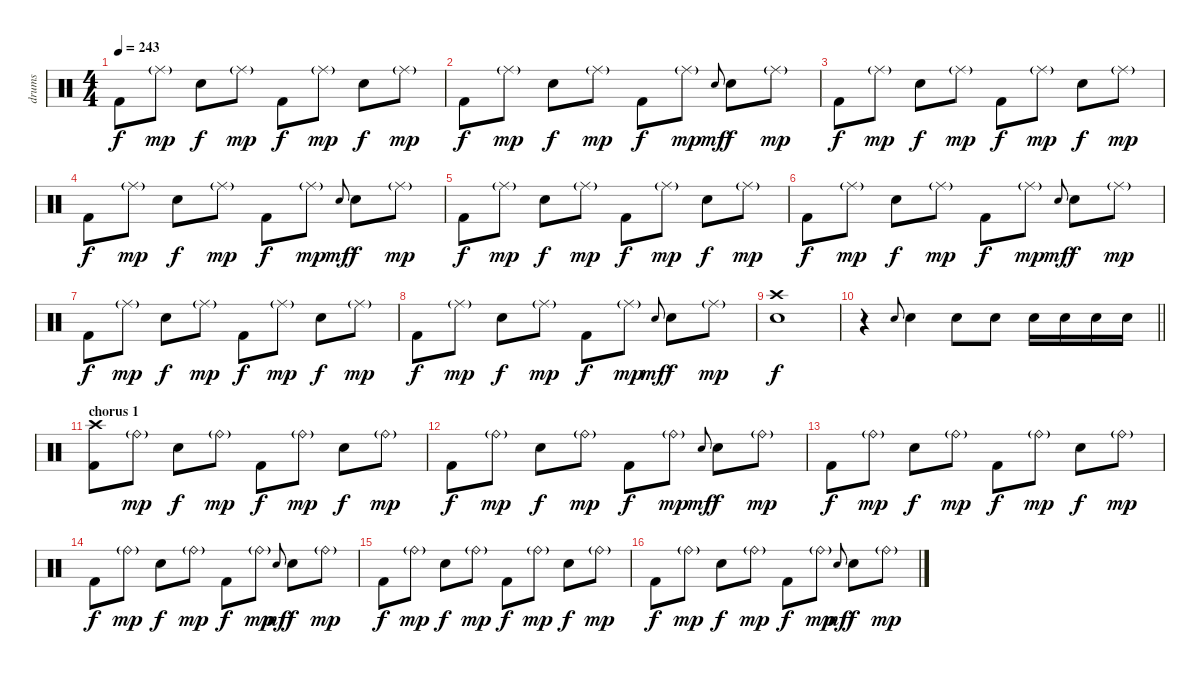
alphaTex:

\track ("drums" "drums") {instrument percussion}
\staff {score}
\articulation defaults
\ts (4 4)
\tempo 243
\clef neutral
\ks c "Kick (hit) 2".8{dy f} "Ride (middle)"{g}.8{dy mp} "Electric Snare (hit)".8{dy f} "Ride (middle)"{g}.8{dy mp} "Kick (hit) 2".8{dy f} "Ride (middle)"{g}.8{dy mp} "Electric Snare (hit)".8{dy f} "Ride (middle)"{g}.8{dy mp}
|
"Kick (hit) 2".8{dy f} "Ride (middle)"{g}.8{dy mp} "Electric Snare (hit)".8{dy f} "Ride (middle)"{g}.8{dy mp} "Kick (hit) 2".8{dy f} "Ride (middle)"{g}.8{dy mp} "Electric Snare (hit)"{x}.8{gr onbeat dy mf} "Electric Snare (hit)".8{dy f} "Ride (middle)"{g}.8{dy mp} |
"Kick (hit) 2".8{dy f} "Ride (middle)"{g}.8{dy mp} "Electric Snare (hit)".8{dy f} "Ride (middle)"{g}.8{dy mp} "Kick (hit) 2".8{dy f} "Ride (middle)"{g}.8{dy mp} "Electric Snare (hit)".8{dy f} "Ride (middle)"{g}.8{dy mp} |
"Kick (hit) 2".8{dy f} "Ride (middle)"{g}.8{dy mp} "Electric Snare (hit)".8{dy f} "Ride (middle)"{g}.8{dy mp} "Kick (hit) 2".8{dy f} "Ride (middle)"{g}.8{dy mp} "Electric Snare (hit)"{x}.8{gr onbeat dy mf} "Electric Snare (hit)".8{dy f} "Ride (middle)"{g}.8{dy mp} |
"Kick (hit) 2".8{dy f} "Ride (middle)"{g}.8{dy mp} "Electric Snare (hit)".8{dy f} "Ride (middle)"{g}.8{dy mp} "Kick (hit) 2".8{dy f} "Ride (middle)"{g}.8{dy mp} "Electric Snare (hit)".8{dy f} "Ride (middle)"{g}.8{dy mp} |
"Kick (hit) 2".8{dy f} "Ride (middle)"{g}.8{dy mp} "Electric Snare (hit)".8{dy f} "Ride (middle)"{g}.8{dy mp} "Kick (hit) 2".8{dy f} "Ride (middle)"{g}.8{dy mp} "Electric Snare (hit)"{x}.8{gr onbeat dy mf} "Electric Snare (hit)".8{dy f} "Ride (middle)"{g}.8{dy mp} |
"Kick (hit) 2".8{dy f} "Ride (middle)"{g}.8{dy mp} "Electric Snare (hit)".8{dy f} "Ride (middle)"{g}.8{dy mp} "Kick (hit) 2".8{dy f} "Ride (middle)"{g}.8{dy mp} "Electric Snare (hit)".8{dy f} "Ride (middle)"{g}.8{dy mp} |
"Kick (hit) 2".8{dy f} "Ride (middle)"{g}.8{dy mp} "Electric Snare (hit)".8{dy f} "Ride (middle)"{g}.8{dy mp} "Kick (hit) 2".8{dy f} "Ride (middle)"{g}.8{dy mp} "Electric Snare (hit)"{x}.8{gr onbeat dy mf} "Electric Snare (hit)".8{dy f} "Ride (middle)"{g}.8{dy mp} |
("Electric Snare (hit)" "Crash high (hit)").1{dy f} |
\barLineRight lightlight
r.4 "Electric Snare (hit)"{x}.8{gr onbeat} "Electric Snare (hit)".4 "Electric Snare (hit)".8 "Electric Snare (hit)".8 "Electric Snare (hit)".16 "Electric Snare (hit)".16 "Electric Snare (hit)".16 "Electric Snare (hit)".16 |
\section ("" "chorus 1")
("Kick (hit) 2" "Crash high (hit)").8 "Ride (bell)"{g}.8{dy mp} "Electric Snare (hit)".8{dy f} "Ride (bell)"{g}.8{dy mp} "Kick (hit) 2".8{dy f} "Ride (bell)"{g}.8{dy mp} "Electric Snare (hit)".8{dy f} "Ride (bell)"{g}.8{dy mp} |
"Kick (hit) 2".8{dy f} "Ride (bell)"{g}.8{dy mp} "Electric Snare (hit)".8{dy f} "Ride (bell)"{g}.8{dy mp} "Kick (hit) 2".8{dy f} "Ride (bell)"{g}.8{dy mp} "Electric Snare (hit)"{x}.8{gr onbeat dy mf} "Electric Snare (hit)".8{dy f} "Ride (bell)"{g}.8{dy mp} |
"Kick (hit) 2".8{dy f} "Ride (bell)"{g}.8{dy mp} "Electric Snare (hit)".8{dy f} "Ride (bell)"{g}.8{dy mp} "Kick (hit) 2".8{dy f} "Ride (bell)"{g}.8{dy mp} "Electric Snare (hit)".8{dy f} "Ride (bell)"{g}.8{dy mp} |
"Kick (hit) 2".8{dy f} "Ride (bell)"{g}.8{dy mp} "Electric Snare (hit)".8{dy f} "Ride (bell)"{g}.8{dy mp} "Kick (hit) 2".8{dy f} "Ride (bell)"{g}.8{dy mp} "Electric Snare (hit)"{x}.8{gr onbeat dy mf} "Electric Snare (hit)".8{dy f} "Ride (bell)"{g}.8{dy mp} |
"Kick (hit) 2".8{dy f} "Ride (bell)"{g}.8{dy mp} "Electric Snare (hit)".8{dy f} "Ride (bell)"{g}.8{dy mp} "Kick (hit) 2".8{dy f} "Ride (bell)"{g}.8{dy mp} "Electric Snare (hit)".8{dy f} "Ride (bell)"{g}.8{dy mp} |
"Kick (hit) 2".8{dy f} "Ride (bell)"{g}.8{dy mp} "Electric Snare (hit)".8{dy f} "Ride (bell)"{g}.8{dy mp} "Kick (hit) 2".8{dy f} "Ride (bell)"{g}.8{dy mp} "Electric Snare (hit)"{x}.8{gr onbeat dy mf} "Electric Snare (hit)".8{dy f} "Ride (bell)"{g}.8{dy mp}
